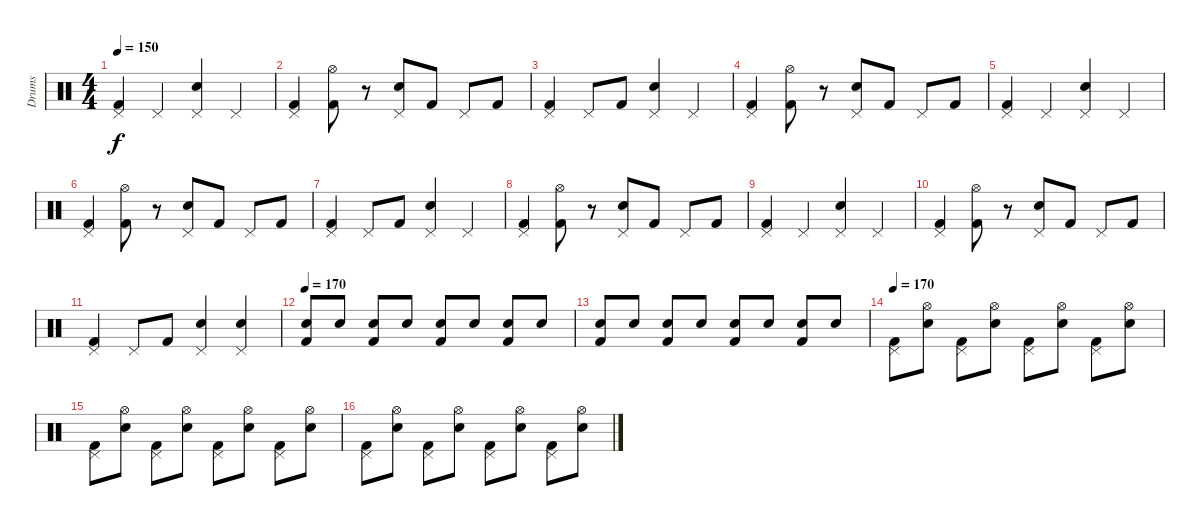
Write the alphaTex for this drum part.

\track ("Drums" "Drums") {instrument percussion}
\staff {score}
\articulation defaults
\ts (4 4)
\tempo 150
\clef neutral
\ks c
("Pedal Hi-Hat (hit)" "Kick (hit) 2").4{dy f} "Pedal Hi-Hat (hit)".4 ("Pedal Hi-Hat (hit)" "Snare (hit) 2").4 "Pedal Hi-Hat (hit)".4 |
("Pedal Hi-Hat (hit)" "Kick (hit) 2").4 ("Hi-Hat (open)" "Kick (hit) 2").8 r.8 ("Pedal Hi-Hat (hit)" "Snare (hit) 2").8 "Kick (hit) 2".8 "Pedal Hi-Hat (hit)".8 "Kick (hit) 2".8 |
("Pedal Hi-Hat (hit)" "Kick (hit) 2").4 "Pedal Hi-Hat (hit)".8 "Kick (hit) 2".8 ("Pedal Hi-Hat (hit)" "Snare (hit) 2").4 "Pedal Hi-Hat (hit)".4 |
("Pedal Hi-Hat (hit)" "Kick (hit) 2").4 ("Hi-Hat (open)" "Kick (hit) 2").8 r.8 ("Pedal Hi-Hat (hit)" "Snare (hit) 2").8 "Kick (hit) 2".8 "Pedal Hi-Hat (hit)".8 "Kick (hit) 2".8 |
("Pedal Hi-Hat (hit)" "Kick (hit) 2").4 "Pedal Hi-Hat (hit)".4 ("Pedal Hi-Hat (hit)" "Snare (hit) 2").4 "Pedal Hi-Hat (hit)".4 |
("Pedal Hi-Hat (hit)" "Kick (hit) 2").4 ("Hi-Hat (open)" "Kick (hit) 2").8 r.8 ("Pedal Hi-Hat (hit)" "Snare (hit) 2").8 "Kick (hit) 2".8 "Pedal Hi-Hat (hit)".8 "Kick (hit) 2".8 |
("Pedal Hi-Hat (hit)" "Kick (hit) 2").4 "Pedal Hi-Hat (hit)".8 "Kick (hit) 2".8 ("Pedal Hi-Hat (hit)" "Snare (hit) 2").4 "Pedal Hi-Hat (hit)".4 |
("Pedal Hi-Hat (hit)" "Kick (hit) 2").4 ("Hi-Hat (open)" "Kick (hit) 2").8 r.8 ("Pedal Hi-Hat (hit)" "Snare (hit) 2").8 "Kick (hit) 2".8 "Pedal Hi-Hat (hit)".8 "Kick (hit) 2".8 |
("Pedal Hi-Hat (hit)" "Kick (hit) 2").4 "Pedal Hi-Hat (hit)".4 ("Pedal Hi-Hat (hit)" "Snare (hit) 2").4 "Pedal Hi-Hat (hit)".4 |
("Pedal Hi-Hat (hit)" "Kick (hit) 2").4 ("Hi-Hat (open)" "Kick (hit) 2").8 r.8 ("Pedal Hi-Hat (hit)" "Snare (hit) 2").8 "Kick (hit) 2".8 "Pedal Hi-Hat (hit)".8 "Kick (hit) 2".8 |
("Pedal Hi-Hat (hit)" "Kick (hit) 2").4 "Pedal Hi-Hat (hit)".8 "Kick (hit) 2".8 ("Pedal Hi-Hat (hit)" "Snare (hit) 2").4 ("Pedal Hi-Hat (hit)" "Snare (hit) 2").4 |
\tempo 170
("Electric Snare (hit)" "Kick (hit) 2").8{volume 16} "Electric Snare (hit)".8 ("Electric Snare (hit)" "Kick (hit) 2").8 "Electric Snare (hit)".8 ("Electric Snare (hit)" "Kick (hit) 2").8 "Electric Snare (hit)".8 ("Electric Snare (hit)" "Kick (hit) 2").8 "Electric Snare (hit)".8 |
("Electric Snare (hit)" "Kick (hit) 2").8 "Electric Snare (hit)".8 ("Electric Snare (hit)" "Kick (hit) 2").8 "Electric Snare (hit)".8 ("Electric Snare (hit)" "Kick (hit) 2").8 "Electric Snare (hit)".8 ("Electric Snare (hit)" "Kick (hit) 2").8 "Electric Snare (hit)".8 |
\tempo 170
("Pedal Hi-Hat (hit)" "Kick (hit) 2").8 ("Hi-Hat (open)" "Electric Snare (hit)").8 ("Pedal Hi-Hat (hit)" "Kick (hit) 2").8 ("Hi-Hat (open)" "Electric Snare (hit)").8 ("Pedal Hi-Hat (hit)" "Kick (hit) 2").8 ("Hi-Hat (open)" "Electric Snare (hit)").8 ("Pedal Hi-Hat (hit)" "Kick (hit) 2").8 ("Hi-Hat (open)" "Electric Snare (hit)").8 |
("Pedal Hi-Hat (hit)" "Kick (hit) 2").8 ("Hi-Hat (open)" "Electric Snare (hit)").8 ("Pedal Hi-Hat (hit)" "Kick (hit) 2").8 ("Hi-Hat (open)" "Electric Snare (hit)").8 ("Pedal Hi-Hat (hit)" "Kick (hit) 2").8 ("Hi-Hat (open)" "Electric Snare (hit)").8 ("Pedal Hi-Hat (hit)" "Kick (hit) 2").8 ("Hi-Hat (open)" "Electric Snare (hit)").8 |
("Pedal Hi-Hat (hit)" "Kick (hit) 2").8 ("Hi-Hat (open)" "Electric Snare (hit)").8 ("Pedal Hi-Hat (hit)" "Kick (hit) 2").8 ("Hi-Hat (open)" "Electric Snare (hit)").8 ("Pedal Hi-Hat (hit)" "Kick (hit) 2").8 ("Hi-Hat (open)" "Electric Snare (hit)").8 ("Pedal Hi-Hat (hit)" "Kick (hit) 2").8 ("Hi-Hat (open)" "Electric Snare (hit)").8
